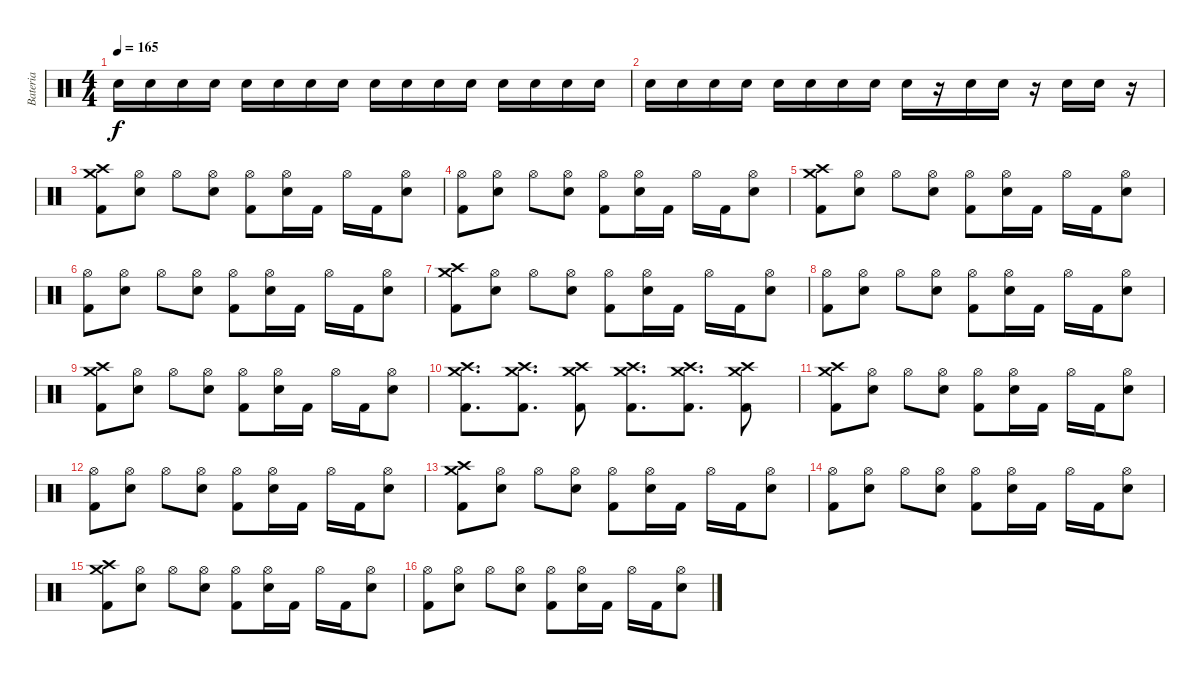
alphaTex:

\track ("Bateria" "Bateria") {instrument percussion}
\staff {score}
\articulation defaults
\ts (4 4)
\tempo 165
\clef neutral
\ks c "Electric Snare (hit)".16{dy f} "Electric Snare (hit)".16 "Electric Snare (hit)".16 "Electric Snare (hit)".16 "Electric Snare (hit)".16 "Electric Snare (hit)".16 "Electric Snare (hit)".16 "Electric Snare (hit)".16 "Electric Snare (hit)".16 "Electric Snare (hit)".16 "Electric Snare (hit)".16 "Electric Snare (hit)".16 "Electric Snare (hit)".16 "Electric Snare (hit)".16 "Electric Snare (hit)".16 "Electric Snare (hit)".16
|
"Electric Snare (hit)".16 "Electric Snare (hit)".16 "Electric Snare (hit)".16 "Electric Snare (hit)".16 "Electric Snare (hit)".16 "Electric Snare (hit)".16 "Electric Snare (hit)".16 "Electric Snare (hit)".16 "Electric Snare (hit)".16 r.16 "Electric Snare (hit)".16 "Electric Snare (hit)".16 r.16 "Electric Snare (hit)".16 "Electric Snare (hit)".16 r.16 |
("Kick (hit) 2" "Crash medium (hit)" "Crash high (hit)").8 ("Hi-Hat (open)" "Electric Snare (hit)").8 "Hi-Hat (open)".8 ("Hi-Hat (open)" "Electric Snare (hit)").8 ("Kick (hit) 2" "Hi-Hat (open)").8 ("Hi-Hat (open)" "Electric Snare (hit)").16 "Kick (hit) 2".16 "Hi-Hat (open)".16 "Kick (hit) 2".16 ("Hi-Hat (open)" "Electric Snare (hit)").8 |
("Kick (hit) 2" "Hi-Hat (open)").8 ("Hi-Hat (open)" "Electric Snare (hit)").8 "Hi-Hat (open)".8 ("Hi-Hat (open)" "Electric Snare (hit)").8 ("Kick (hit) 2" "Hi-Hat (open)").8 ("Hi-Hat (open)" "Electric Snare (hit)").16 "Kick (hit) 2".16 "Hi-Hat (open)".16 "Kick (hit) 2".16 ("Hi-Hat (open)" "Electric Snare (hit)").8 |
("Kick (hit) 2" "Crash medium (hit)" "Crash high (hit)").8 ("Hi-Hat (open)" "Electric Snare (hit)").8 "Hi-Hat (open)".8 ("Hi-Hat (open)" "Electric Snare (hit)").8 ("Kick (hit) 2" "Hi-Hat (open)").8 ("Hi-Hat (open)" "Electric Snare (hit)").16 "Kick (hit) 2".16 "Hi-Hat (open)".16 "Kick (hit) 2".16 ("Hi-Hat (open)" "Electric Snare (hit)").8 |
("Kick (hit) 2" "Hi-Hat (open)").8 ("Hi-Hat (open)" "Electric Snare (hit)").8 "Hi-Hat (open)".8 ("Hi-Hat (open)" "Electric Snare (hit)").8 ("Kick (hit) 2" "Hi-Hat (open)").8 ("Hi-Hat (open)" "Electric Snare (hit)").16 "Kick (hit) 2".16 "Hi-Hat (open)".16 "Kick (hit) 2".16 ("Hi-Hat (open)" "Electric Snare (hit)").8 |
("Kick (hit) 2" "Crash medium (hit)" "Crash high (hit)").8 ("Hi-Hat (open)" "Electric Snare (hit)").8 "Hi-Hat (open)".8 ("Hi-Hat (open)" "Electric Snare (hit)").8 ("Kick (hit) 2" "Hi-Hat (open)").8 ("Hi-Hat (open)" "Electric Snare (hit)").16 "Kick (hit) 2".16 "Hi-Hat (open)".16 "Kick (hit) 2".16 ("Hi-Hat (open)" "Electric Snare (hit)").8 |
("Kick (hit) 2" "Hi-Hat (open)").8 ("Hi-Hat (open)" "Electric Snare (hit)").8 "Hi-Hat (open)".8 ("Hi-Hat (open)" "Electric Snare (hit)").8 ("Kick (hit) 2" "Hi-Hat (open)").8 ("Hi-Hat (open)" "Electric Snare (hit)").16 "Kick (hit) 2".16 "Hi-Hat (open)".16 "Kick (hit) 2".16 ("Hi-Hat (open)" "Electric Snare (hit)").8 |
("Kick (hit) 2" "Crash medium (hit)" "Crash high (hit)").8 ("Hi-Hat (open)" "Electric Snare (hit)").8 "Hi-Hat (open)".8 ("Hi-Hat (open)" "Electric Snare (hit)").8 ("Kick (hit) 2" "Hi-Hat (open)").8 ("Hi-Hat (open)" "Electric Snare (hit)").16 "Kick (hit) 2".16 "Hi-Hat (open)".16 "Kick (hit) 2".16 ("Hi-Hat (open)" "Electric Snare (hit)").8 |
("Kick (hit) 2" "Crash medium (hit)" "Crash high (hit)").8{d} ("Kick (hit) 2" "Crash medium (hit)" "Crash high (hit)").8{d} ("Kick (hit) 2" "Crash medium (hit)" "Crash high (hit)").8 ("Kick (hit) 2" "Crash medium (hit)" "Crash high (hit)").8{d} ("Kick (hit) 2" "Crash medium (hit)" "Crash high (hit)").8{d} ("Kick (hit) 2" "Crash medium (hit)" "Crash high (hit)").8 |
("Kick (hit) 2" "Crash medium (hit)" "Crash high (hit)").8 ("Hi-Hat (open)" "Electric Snare (hit)").8 "Hi-Hat (open)".8 ("Hi-Hat (open)" "Electric Snare (hit)").8 ("Kick (hit) 2" "Hi-Hat (open)").8 ("Hi-Hat (open)" "Electric Snare (hit)").16 "Kick (hit) 2".16 "Hi-Hat (open)".16 "Kick (hit) 2".16 ("Hi-Hat (open)" "Electric Snare (hit)").8 |
("Kick (hit) 2" "Hi-Hat (open)").8 ("Hi-Hat (open)" "Electric Snare (hit)").8 "Hi-Hat (open)".8 ("Hi-Hat (open)" "Electric Snare (hit)").8 ("Kick (hit) 2" "Hi-Hat (open)").8 ("Hi-Hat (open)" "Electric Snare (hit)").16 "Kick (hit) 2".16 "Hi-Hat (open)".16 "Kick (hit) 2".16 ("Hi-Hat (open)" "Electric Snare (hit)").8 |
("Kick (hit) 2" "Crash medium (hit)" "Crash high (hit)").8 ("Hi-Hat (open)" "Electric Snare (hit)").8 "Hi-Hat (open)".8 ("Hi-Hat (open)" "Electric Snare (hit)").8 ("Kick (hit) 2" "Hi-Hat (open)").8 ("Hi-Hat (open)" "Electric Snare (hit)").16 "Kick (hit) 2".16 "Hi-Hat (open)".16 "Kick (hit) 2".16 ("Hi-Hat (open)" "Electric Snare (hit)").8 |
("Kick (hit) 2" "Hi-Hat (open)").8 ("Hi-Hat (open)" "Electric Snare (hit)").8 "Hi-Hat (open)".8 ("Hi-Hat (open)" "Electric Snare (hit)").8 ("Kick (hit) 2" "Hi-Hat (open)").8 ("Hi-Hat (open)" "Electric Snare (hit)").16 "Kick (hit) 2".16 "Hi-Hat (open)".16 "Kick (hit) 2".16 ("Hi-Hat (open)" "Electric Snare (hit)").8 |
("Kick (hit) 2" "Crash medium (hit)" "Crash high (hit)").8 ("Hi-Hat (open)" "Electric Snare (hit)").8 "Hi-Hat (open)".8 ("Hi-Hat (open)" "Electric Snare (hit)").8 ("Kick (hit) 2" "Hi-Hat (open)").8 ("Hi-Hat (open)" "Electric Snare (hit)").16 "Kick (hit) 2".16 "Hi-Hat (open)".16 "Kick (hit) 2".16 ("Hi-Hat (open)" "Electric Snare (hit)").8 |
("Kick (hit) 2" "Hi-Hat (open)").8 ("Hi-Hat (open)" "Electric Snare (hit)").8 "Hi-Hat (open)".8 ("Hi-Hat (open)" "Electric Snare (hit)").8 ("Kick (hit) 2" "Hi-Hat (open)").8 ("Hi-Hat (open)" "Electric Snare (hit)").16 "Kick (hit) 2".16 "Hi-Hat (open)".16 "Kick (hit) 2".16 ("Hi-Hat (open)" "Electric Snare (hit)").8
